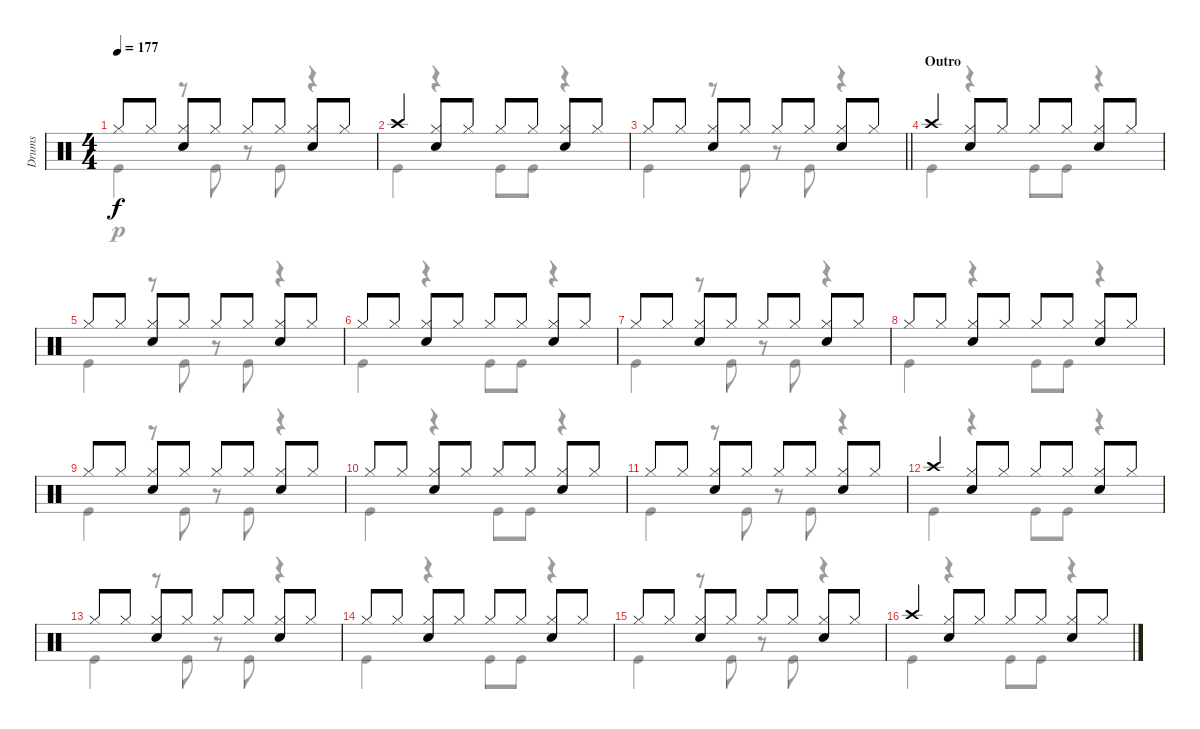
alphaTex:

\track ("Drums" "Drums") {instrument percussion}
\staff {score}
\articulation defaults
\voice
\ts (4 4)
\tempo 177
\clef neutral
\ks c "Hi-Hat (closed)".8{dy f} "Hi-Hat (closed)".8
("Hi-Hat (closed)" "Snare (hit) 2").8 "Hi-Hat (closed)".8 "Hi-Hat (closed)".8 "Hi-Hat (closed)".8 ("Hi-Hat (closed)" "Snare (hit) 2").8 "Hi-Hat (closed)".8 |
"Crash high (hit)".4 ("Hi-Hat (closed)" "Snare (hit) 2").8 "Hi-Hat (closed)".8 "Hi-Hat (closed)".8 "Hi-Hat (closed)".8 ("Hi-Hat (closed)" "Snare (hit) 2").8 "Hi-Hat (closed)".8 |
\barLineRight lightlight "Hi-Hat (closed)".8 "Hi-Hat (closed)".8
("Hi-Hat (closed)" "Snare (hit) 2").8 "Hi-Hat (closed)".8 "Hi-Hat (closed)".8 "Hi-Hat (closed)".8 ("Hi-Hat (closed)" "Snare (hit) 2").8 "Hi-Hat (closed)".8 |
\section ("" "Outro")
"Crash high (hit)".4 ("Hi-Hat (closed)" "Snare (hit) 2").8 "Hi-Hat (closed)".8 "Hi-Hat (closed)".8 "Hi-Hat (closed)".8 ("Hi-Hat (closed)" "Snare (hit) 2").8 "Hi-Hat (closed)".8 |
"Hi-Hat (closed)".8 "Hi-Hat (closed)".8 ("Hi-Hat (closed)" "Snare (hit) 2").8 "Hi-Hat (closed)".8 "Hi-Hat (closed)".8 "Hi-Hat (closed)".8 ("Hi-Hat (closed)" "Snare (hit) 2").8 "Hi-Hat (closed)".8 |
"Hi-Hat (closed)".8 "Hi-Hat (closed)".8 ("Hi-Hat (closed)" "Snare (hit) 2").8 "Hi-Hat (closed)".8 "Hi-Hat (closed)".8 "Hi-Hat (closed)".8 ("Hi-Hat (closed)" "Snare (hit) 2").8 "Hi-Hat (closed)".8 |
"Hi-Hat (closed)".8 "Hi-Hat (closed)".8 ("Hi-Hat (closed)" "Snare (hit) 2").8 "Hi-Hat (closed)".8 "Hi-Hat (closed)".8 "Hi-Hat (closed)".8 ("Hi-Hat (closed)" "Snare (hit) 2").8 "Hi-Hat (closed)".8 |
"Hi-Hat (closed)".8 "Hi-Hat (closed)".8 ("Hi-Hat (closed)" "Snare (hit) 2").8 "Hi-Hat (closed)".8 "Hi-Hat (closed)".8 "Hi-Hat (closed)".8 ("Hi-Hat (closed)" "Snare (hit) 2").8 "Hi-Hat (closed)".8 |
"Hi-Hat (closed)".8 "Hi-Hat (closed)".8 ("Hi-Hat (closed)" "Snare (hit) 2").8 "Hi-Hat (closed)".8 "Hi-Hat (closed)".8 "Hi-Hat (closed)".8 ("Hi-Hat (closed)" "Snare (hit) 2").8 "Hi-Hat (closed)".8 |
"Hi-Hat (closed)".8 "Hi-Hat (closed)".8 ("Hi-Hat (closed)" "Snare (hit) 2").8 "Hi-Hat (closed)".8 "Hi-Hat (closed)".8 "Hi-Hat (closed)".8 ("Hi-Hat (closed)" "Snare (hit) 2").8 "Hi-Hat (closed)".8 |
"Hi-Hat (closed)".8 "Hi-Hat (closed)".8 ("Hi-Hat (closed)" "Snare (hit) 2").8 "Hi-Hat (closed)".8 "Hi-Hat (closed)".8 "Hi-Hat (closed)".8 ("Hi-Hat (closed)" "Snare (hit) 2").8 "Hi-Hat (closed)".8 |
"Crash high (hit)".4 ("Hi-Hat (closed)" "Snare (hit) 2").8 "Hi-Hat (closed)".8 "Hi-Hat (closed)".8 "Hi-Hat (closed)".8 ("Hi-Hat (closed)" "Snare (hit) 2").8 "Hi-Hat (closed)".8 |
"Hi-Hat (closed)".8 "Hi-Hat (closed)".8 ("Hi-Hat (closed)" "Snare (hit) 2").8 "Hi-Hat (closed)".8 "Hi-Hat (closed)".8 "Hi-Hat (closed)".8 ("Hi-Hat (closed)" "Snare (hit) 2").8 "Hi-Hat (closed)".8 |
"Hi-Hat (closed)".8 "Hi-Hat (closed)".8 ("Hi-Hat (closed)" "Snare (hit) 2").8 "Hi-Hat (closed)".8 "Hi-Hat (closed)".8 "Hi-Hat (closed)".8 ("Hi-Hat (closed)" "Snare (hit) 2").8 "Hi-Hat (closed)".8 |
"Hi-Hat (closed)".8 "Hi-Hat (closed)".8 ("Hi-Hat (closed)" "Snare (hit) 2").8 "Hi-Hat (closed)".8 "Hi-Hat (closed)".8 "Hi-Hat (closed)".8 ("Hi-Hat (closed)" "Snare (hit) 2").8 "Hi-Hat (closed)".8 |
"Crash high (hit)".4 ("Hi-Hat (closed)" "Snare (hit) 2").8 "Hi-Hat (closed)".8 "Hi-Hat (closed)".8 "Hi-Hat (closed)".8 ("Hi-Hat (closed)" "Snare (hit) 2").8 "Hi-Hat (closed)".8
\voice
\clef neutral
\ottava regular
\simile none
\ks c "Kick (hit)".4{dy p}
r.8 "Kick (hit)".8 r.8 "Kick (hit)".8 r.4 |
"Kick (hit)".4 r.4 "Kick (hit)".8 "Kick (hit)".8 r.4 |
\barLineRight lightlight "Kick (hit)".4
r.8 "Kick (hit)".8 r.8 "Kick (hit)".8 r.4 |
"Kick (hit)".4 r.4 "Kick (hit)".8 "Kick (hit)".8 r.4 |
"Kick (hit)".4 r.8 "Kick (hit)".8 r.8 "Kick (hit)".8 r.4 |
"Kick (hit)".4 r.4 "Kick (hit)".8 "Kick (hit)".8 r.4 |
"Kick (hit)".4 r.8 "Kick (hit)".8 r.8 "Kick (hit)".8 r.4 |
"Kick (hit)".4 r.4 "Kick (hit)".8 "Kick (hit)".8 r.4 |
"Kick (hit)".4 r.8 "Kick (hit)".8 r.8 "Kick (hit)".8 r.4 |
"Kick (hit)".4 r.4 "Kick (hit)".8 "Kick (hit)".8 r.4 |
"Kick (hit)".4 r.8 "Kick (hit)".8 r.8 "Kick (hit)".8 r.4 |
"Kick (hit)".4 r.4 "Kick (hit)".8 "Kick (hit)".8 r.4 |
"Kick (hit)".4 r.8 "Kick (hit)".8 r.8 "Kick (hit)".8 r.4 |
"Kick (hit)".4 r.4 "Kick (hit)".8 "Kick (hit)".8 r.4 |
"Kick (hit)".4 r.8 "Kick (hit)".8 r.8 "Kick (hit)".8 r.4 |
"Kick (hit)".4 r.4 "Kick (hit)".8 "Kick (hit)".8 r.4
